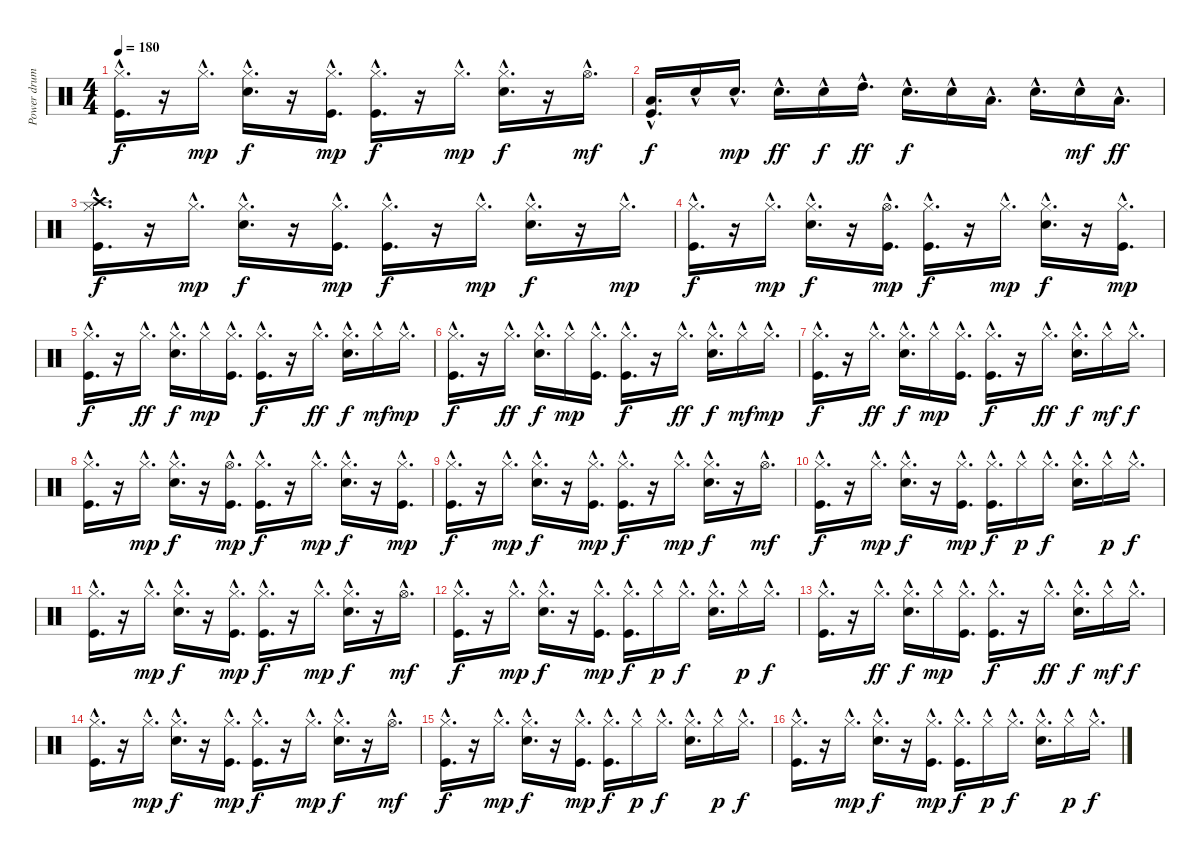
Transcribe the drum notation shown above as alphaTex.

\track ("Power drum" "Power drum") {instrument percussion}
\staff {score}
\articulation defaults
\ts (4 4)
\tempo 180
\clef neutral
\ks c
("Kick (hit)"{hac} "Hi-Hat (closed)"{hac}).16{d dy f} r.16 "Hi-Hat (closed)"{hac}.16{d dy mp} ("Snare (hit) 2"{hac} "Hi-Hat (closed)"{hac}).16{d dy f} r.16 ("Kick (hit)"{hac} "Hi-Hat (closed)"{hac}).16{d dy mp} ("Kick (hit)"{hac} "Hi-Hat (closed)"{hac}).16{d dy f} r.16 "Hi-Hat (closed)"{hac}.16{d dy mp} ("Snare (hit) 2"{hac} "Hi-Hat (closed)"{hac}).16{d dy f} r.16 "Hi-Hat (open)"{hac}.16{d dy mf} |
("Kick (hit)"{hac} "Low Tom (hit)"{hac}).16{d dy f} "Snare (hit) 2"{hac}.16 "Snare (hit) 2"{hac}.16{d dy mp} "Snare (hit) 2"{hac}.16{d dy ff} "Snare (hit) 2"{hac}.16{dy f} "High Tom (hit)"{hac}.16{d dy ff} "Snare (hit) 2"{hac}.16{d dy f} "Snare (hit) 2"{hac}.16 "Low Tom (hit)"{hac}.16{d} "Snare (hit) 2"{hac}.16{d} "Snare (hit) 2"{hac}.16{dy mf} "Low Floor Tom (hit)"{hac}.16{d dy ff} |
("Kick (hit)"{hac} "Hi-Hat (closed)"{hac} "Crash high (hit)"{hac}).16{d dy f} r.16 "Hi-Hat (closed)"{hac}.16{d dy mp} ("Snare (hit) 2"{hac} "Hi-Hat (closed)"{hac}).16{d dy f} r.16 ("Kick (hit)"{hac} "Hi-Hat (closed)"{hac}).16{d dy mp} ("Kick (hit)"{hac} "Hi-Hat (closed)"{hac}).16{d dy f} r.16 "Hi-Hat (closed)"{hac}.16{d dy mp} ("Snare (hit) 2"{hac} "Hi-Hat (closed)"{hac}).16{d dy f} r.16 "Hi-Hat (closed)"{hac}.16{d dy mp} |
("Kick (hit)"{hac} "Hi-Hat (closed)"{hac}).16{d dy f} r.16 "Hi-Hat (closed)"{hac}.16{d dy mp} ("Snare (hit) 2"{hac} "Hi-Hat (closed)"{hac}).16{d dy f} r.16 ("Kick (hit)"{hac} "Hi-Hat (open)"{hac}).16{d dy mp} ("Kick (hit)"{hac} "Hi-Hat (closed)"{hac}).16{d dy f} r.16 "Hi-Hat (closed)"{hac}.16{d dy mp} ("Snare (hit) 2"{hac} "Hi-Hat (closed)"{hac}).16{d dy f} r.16 ("Kick (hit)"{hac} "Hi-Hat (closed)"{hac}).16{d dy mp} |
("Kick (hit)"{hac} "Hi-Hat (closed)"{hac}).16{d dy f} r.16 "Hi-Hat (closed)"{hac}.16{d dy ff} ("Snare (hit) 2"{hac} "Hi-Hat (closed)"{hac}).16{d dy f} "Hi-Hat (closed)"{hac}.16{dy mp} ("Kick (hit)"{hac} "Hi-Hat (closed)"{hac}).16{d} ("Kick (hit)"{hac} "Hi-Hat (closed)"{hac}).16{d dy f} r.16 "Hi-Hat (closed)"{hac}.16{d dy ff} ("Snare (hit) 2"{hac} "Hi-Hat (closed)"{hac}).16{d dy f} "Hi-Hat (closed)"{hac}.16{dy mf} "Hi-Hat (closed)"{hac}.16{d dy mp} |
("Kick (hit)"{hac} "Hi-Hat (closed)"{hac}).16{d dy f} r.16 "Hi-Hat (closed)"{hac}.16{d dy ff} ("Snare (hit) 2"{hac} "Hi-Hat (closed)"{hac}).16{d dy f} "Hi-Hat (closed)"{hac}.16{dy mp} ("Kick (hit)"{hac} "Hi-Hat (closed)"{hac}).16{d} ("Kick (hit)"{hac} "Hi-Hat (closed)"{hac}).16{d dy f} r.16 "Hi-Hat (closed)"{hac}.16{d dy ff} ("Snare (hit) 2"{hac} "Hi-Hat (closed)"{hac}).16{d dy f} "Hi-Hat (closed)"{hac}.16{dy mf} "Hi-Hat (closed)"{hac}.16{d dy mp} |
("Kick (hit)"{hac} "Hi-Hat (closed)"{hac}).16{d dy f} r.16 "Hi-Hat (closed)"{hac}.16{d dy ff} ("Snare (hit) 2"{hac} "Hi-Hat (closed)"{hac}).16{d dy f} "Hi-Hat (closed)"{hac}.16{dy mp} ("Kick (hit)"{hac} "Hi-Hat (closed)"{hac}).16{d} ("Kick (hit)"{hac} "Hi-Hat (closed)"{hac}).16{d dy f} r.16 "Hi-Hat (closed)"{hac}.16{d dy ff} ("Snare (hit) 2"{hac} "Hi-Hat (closed)"{hac}).16{d dy f} "Hi-Hat (closed)"{hac}.16{dy mf} "Hi-Hat (closed)"{hac}.16{d dy f} |
("Kick (hit)"{hac} "Hi-Hat (closed)"{hac}).16{d} r.16 "Hi-Hat (closed)"{hac}.16{d dy mp} ("Snare (hit) 2"{hac} "Hi-Hat (closed)"{hac}).16{d dy f} r.16 ("Kick (hit)"{hac} "Hi-Hat (open)"{hac}).16{d dy mp} ("Kick (hit)"{hac} "Hi-Hat (closed)"{hac}).16{d dy f} r.16 "Hi-Hat (closed)"{hac}.16{d dy mp} ("Snare (hit) 2"{hac} "Hi-Hat (closed)"{hac}).16{d dy f} r.16 ("Kick (hit)"{hac} "Hi-Hat (closed)"{hac}).16{d dy mp} |
("Kick (hit)"{hac} "Hi-Hat (closed)"{hac}).16{d dy f} r.16 "Hi-Hat (closed)"{hac}.16{d dy mp} ("Snare (hit) 2"{hac} "Hi-Hat (closed)"{hac}).16{d dy f} r.16 ("Kick (hit)"{hac} "Hi-Hat (closed)"{hac}).16{d dy mp} ("Kick (hit)"{hac} "Hi-Hat (closed)"{hac}).16{d dy f} r.16 "Hi-Hat (closed)"{hac}.16{d dy mp} ("Snare (hit) 2"{hac} "Hi-Hat (closed)"{hac}).16{d dy f} r.16 "Hi-Hat (open)"{hac}.16{d dy mf} |
("Kick (hit)"{hac} "Hi-Hat (closed)"{hac}).16{d dy f} r.16 "Hi-Hat (closed)"{hac}.16{d dy mp} ("Snare (hit) 2"{hac} "Hi-Hat (closed)"{hac}).16{d dy f} r.16 ("Kick (hit)"{hac} "Hi-Hat (closed)"{hac}).16{d dy mp} ("Kick (hit)"{hac} "Hi-Hat (closed)"{hac}).16{d dy f} "Hi-Hat (closed)"{hac}.16{dy p} "Hi-Hat (closed)"{hac}.16{d dy f} ("Snare (hit) 2"{hac} "Hi-Hat (closed)"{hac}).16{d} "Hi-Hat (closed)"{hac}.16{dy p} "Hi-Hat (closed)"{hac}.16{d dy f} |
("Kick (hit)"{hac} "Hi-Hat (closed)"{hac}).16{d} r.16 "Hi-Hat (closed)"{hac}.16{d dy mp} ("Snare (hit) 2"{hac} "Hi-Hat (closed)"{hac}).16{d dy f} r.16 ("Kick (hit)"{hac} "Hi-Hat (closed)"{hac}).16{d dy mp} ("Kick (hit)"{hac} "Hi-Hat (closed)"{hac}).16{d dy f} r.16 "Hi-Hat (closed)"{hac}.16{d dy mp} ("Snare (hit) 2"{hac} "Hi-Hat (closed)"{hac}).16{d dy f} r.16 "Hi-Hat (open)"{hac}.16{d dy mf} |
("Kick (hit)"{hac} "Hi-Hat (closed)"{hac}).16{d dy f} r.16 "Hi-Hat (closed)"{hac}.16{d dy mp} ("Snare (hit) 2"{hac} "Hi-Hat (closed)"{hac}).16{d dy f} r.16 ("Kick (hit)"{hac} "Hi-Hat (closed)"{hac}).16{d dy mp} ("Kick (hit)"{hac} "Hi-Hat (closed)"{hac}).16{d dy f} "Hi-Hat (closed)"{hac}.16{dy p} "Hi-Hat (closed)"{hac}.16{d dy f} ("Snare (hit) 2"{hac} "Hi-Hat (closed)"{hac}).16{d} "Hi-Hat (closed)"{hac}.16{dy p} "Hi-Hat (closed)"{hac}.16{d dy f} |
("Kick (hit)"{hac} "Hi-Hat (closed)"{hac}).16{d} r.16 "Hi-Hat (closed)"{hac}.16{d dy ff} ("Snare (hit) 2"{hac} "Hi-Hat (closed)"{hac}).16{d dy f} "Hi-Hat (closed)"{hac}.16{dy mp} ("Kick (hit)"{hac} "Hi-Hat (closed)"{hac}).16{d} ("Kick (hit)"{hac} "Hi-Hat (closed)"{hac}).16{d dy f} r.16 "Hi-Hat (closed)"{hac}.16{d dy ff} ("Snare (hit) 2"{hac} "Hi-Hat (closed)"{hac}).16{d dy f} "Hi-Hat (closed)"{hac}.16{dy mf} "Hi-Hat (closed)"{hac}.16{d dy f} |
("Kick (hit)"{hac} "Hi-Hat (closed)"{hac}).16{d} r.16 "Hi-Hat (closed)"{hac}.16{d dy mp} ("Snare (hit) 2"{hac} "Hi-Hat (closed)"{hac}).16{d dy f} r.16 ("Kick (hit)"{hac} "Hi-Hat (closed)"{hac}).16{d dy mp} ("Kick (hit)"{hac} "Hi-Hat (closed)"{hac}).16{d dy f} r.16 "Hi-Hat (closed)"{hac}.16{d dy mp} ("Snare (hit) 2"{hac} "Hi-Hat (closed)"{hac}).16{d dy f} r.16 "Hi-Hat (open)"{hac}.16{d dy mf} |
("Kick (hit)"{hac} "Hi-Hat (closed)"{hac}).16{d dy f} r.16 "Hi-Hat (closed)"{hac}.16{d dy mp} ("Snare (hit) 2"{hac} "Hi-Hat (closed)"{hac}).16{d dy f} r.16 ("Kick (hit)"{hac} "Hi-Hat (closed)"{hac}).16{d dy mp} ("Kick (hit)"{hac} "Hi-Hat (closed)"{hac}).16{d dy f} "Hi-Hat (closed)"{hac}.16{dy p} "Hi-Hat (closed)"{hac}.16{d dy f} ("Snare (hit) 2"{hac} "Hi-Hat (closed)"{hac}).16{d} "Hi-Hat (closed)"{hac}.16{dy p} "Hi-Hat (closed)"{hac}.16{d dy f} |
("Kick (hit)"{hac} "Hi-Hat (closed)"{hac}).16{d} r.16 "Hi-Hat (closed)"{hac}.16{d dy mp} ("Snare (hit) 2"{hac} "Hi-Hat (closed)"{hac}).16{d dy f} r.16 ("Kick (hit)"{hac} "Hi-Hat (closed)"{hac}).16{d dy mp} ("Kick (hit)"{hac} "Hi-Hat (closed)"{hac}).16{d dy f} "Hi-Hat (closed)"{hac}.16{dy p} "Hi-Hat (closed)"{hac}.16{d dy f} ("Snare (hit) 2"{hac} "Hi-Hat (closed)"{hac}).16{d} "Hi-Hat (closed)"{hac}.16{dy p} "Hi-Hat (closed)"{hac}.16{d dy f}
